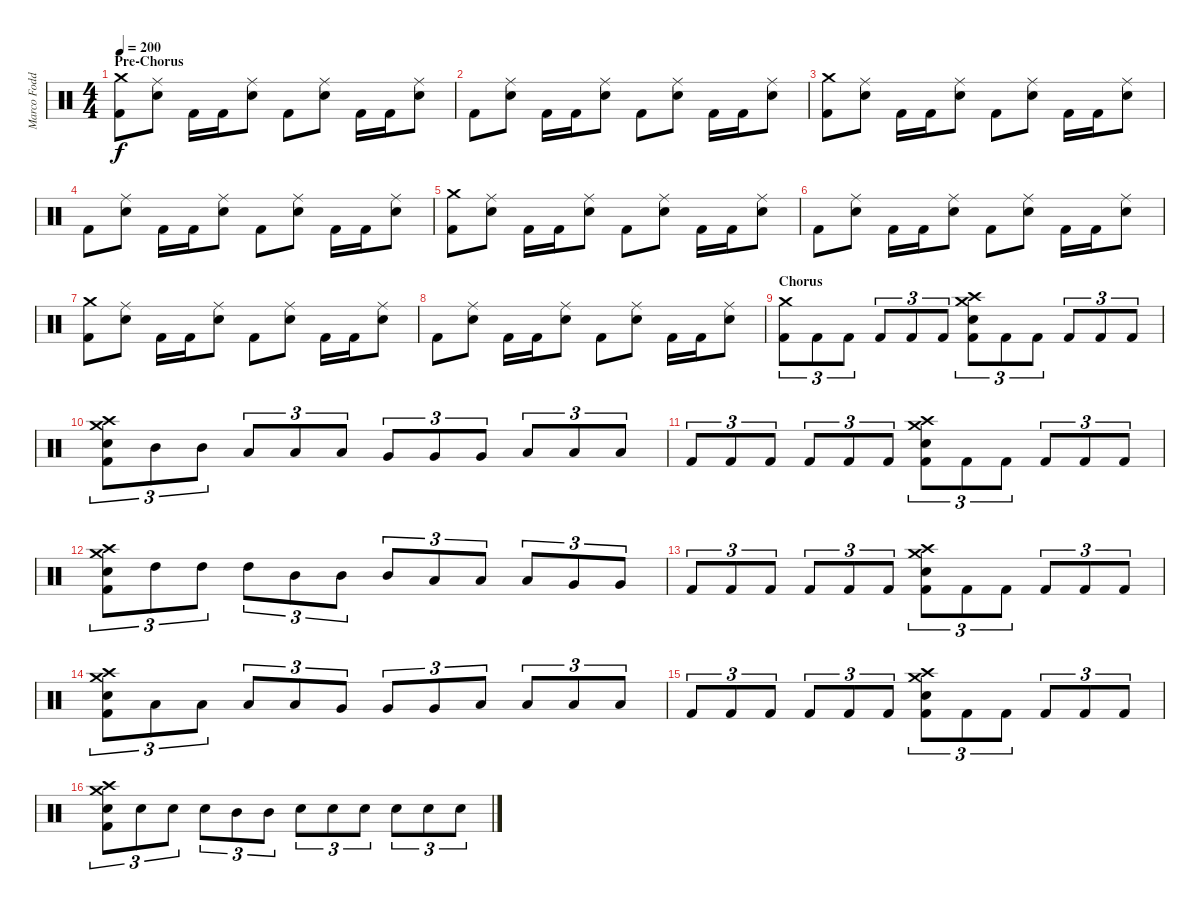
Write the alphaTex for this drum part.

\track ("Marco Foddis " "Marco Fodd") {instrument percussion}
\staff {score}
\articulation defaults
\ts (4 4)
\section ("" "Pre-Chorus")
\tempo 200
\clef neutral
\ks c
("Crash medium (hit)" "Kick (hit) 2").8{dy f} ("Ride (middle)" "Electric Snare (hit)").8 "Kick (hit) 2".16 "Kick (hit) 2".16 ("Ride (middle)" "Electric Snare (hit)").8 "Kick (hit) 2".8 ("Ride (middle)" "Electric Snare (hit)").8 "Kick (hit) 2".16 "Kick (hit) 2".16 ("Ride (middle)" "Electric Snare (hit)").8 |
"Kick (hit) 2".8 ("Ride (middle)" "Electric Snare (hit)").8 "Kick (hit) 2".16 "Kick (hit) 2".16 ("Ride (middle)" "Electric Snare (hit)").8 "Kick (hit) 2".8 ("Ride (middle)" "Electric Snare (hit)").8 "Kick (hit) 2".16 "Kick (hit) 2".16 ("Ride (middle)" "Electric Snare (hit)").8 |
("Crash medium (hit)" "Kick (hit) 2").8 ("Ride (middle)" "Electric Snare (hit)").8 "Kick (hit) 2".16 "Kick (hit) 2".16 ("Ride (middle)" "Electric Snare (hit)").8 "Kick (hit) 2".8 ("Ride (middle)" "Electric Snare (hit)").8 "Kick (hit) 2".16 "Kick (hit) 2".16 ("Ride (middle)" "Electric Snare (hit)").8 |
"Kick (hit) 2".8 ("Ride (middle)" "Electric Snare (hit)").8 "Kick (hit) 2".16 "Kick (hit) 2".16 ("Ride (middle)" "Electric Snare (hit)").8 "Kick (hit) 2".8 ("Ride (middle)" "Electric Snare (hit)").8 "Kick (hit) 2".16 "Kick (hit) 2".16 ("Ride (middle)" "Electric Snare (hit)").8 |
("Crash medium (hit)" "Kick (hit) 2").8 ("Ride (middle)" "Electric Snare (hit)").8 "Kick (hit) 2".16 "Kick (hit) 2".16 ("Ride (middle)" "Electric Snare (hit)").8 "Kick (hit) 2".8 ("Ride (middle)" "Electric Snare (hit)").8 "Kick (hit) 2".16 "Kick (hit) 2".16 ("Ride (middle)" "Electric Snare (hit)").8 |
"Kick (hit) 2".8 ("Ride (middle)" "Electric Snare (hit)").8 "Kick (hit) 2".16 "Kick (hit) 2".16 ("Ride (middle)" "Electric Snare (hit)").8 "Kick (hit) 2".8 ("Ride (middle)" "Electric Snare (hit)").8 "Kick (hit) 2".16 "Kick (hit) 2".16 ("Ride (middle)" "Electric Snare (hit)").8 |
("Crash medium (hit)" "Kick (hit) 2").8 ("Ride (middle)" "Electric Snare (hit)").8 "Kick (hit) 2".16 "Kick (hit) 2".16 ("Ride (middle)" "Electric Snare (hit)").8 "Kick (hit) 2".8 ("Ride (middle)" "Electric Snare (hit)").8 "Kick (hit) 2".16 "Kick (hit) 2".16 ("Ride (middle)" "Electric Snare (hit)").8 |
"Kick (hit) 2".8 ("Ride (middle)" "Electric Snare (hit)").8 "Kick (hit) 2".16 "Kick (hit) 2".16 ("Ride (middle)" "Electric Snare (hit)").8 "Kick (hit) 2".8 ("Ride (middle)" "Electric Snare (hit)").8 "Kick (hit) 2".16 "Kick (hit) 2".16 ("Ride (middle)" "Electric Snare (hit)").8 |
\section ("" "Chorus")
("Crash medium (hit)" "Kick (hit) 2").8{tu (3 2)} "Kick (hit) 2".8{tu (3 2)} "Kick (hit) 2".8{tu (3 2)} "Kick (hit) 2".8{tu (3 2)} "Kick (hit) 2".8{tu (3 2)} "Kick (hit) 2".8{tu (3 2)} ("Crash high (hit)" "Crash medium (hit)" "Electric Snare (hit)" "Kick (hit) 2").8{tu (3 2)} "Kick (hit) 2".8{tu (3 2)} "Kick (hit) 2".8{tu (3 2)} "Kick (hit) 2".8{tu (3 2)} "Kick (hit) 2".8{tu (3 2)} "Kick (hit) 2".8{tu (3 2)} |
("Crash high (hit)" "Crash medium (hit)" "Electric Snare (hit)" "Kick (hit) 2").8{tu (3 2)} "Mid Tom (hit)".8{tu (3 2)} "Mid Tom (hit)".8{tu (3 2)} "Low Tom (hit)".8{tu (3 2)} "Low Tom (hit)".8{tu (3 2)} "Low Tom (hit)".8{tu (3 2)} "Very Low Tom (hit)".8{tu (3 2)} "Very Low Tom (hit)".8{tu (3 2)} "Very Low Tom (hit)".8{tu (3 2)} "Low Floor Tom (hit)".8{tu (3 2)} "Low Floor Tom (hit)".8{tu (3 2)} "Low Floor Tom (hit)".8{tu (3 2)} |
"Kick (hit) 2".8{tu (3 2)} "Kick (hit) 2".8{tu (3 2)} "Kick (hit) 2".8{tu (3 2)} "Kick (hit) 2".8{tu (3 2)} "Kick (hit) 2".8{tu (3 2)} "Kick (hit) 2".8{tu (3 2)} ("Crash high (hit)" "Crash medium (hit)" "Electric Snare (hit)" "Kick (hit) 2").8{tu (3 2)} "Kick (hit) 2".8{tu (3 2)} "Kick (hit) 2".8{tu (3 2)} "Kick (hit) 2".8{tu (3 2)} "Kick (hit) 2".8{tu (3 2)} "Kick (hit) 2".8{tu (3 2)} |
("Crash high (hit)" "Crash medium (hit)" "Electric Snare (hit)" "Kick (hit) 2").8{tu (3 2)} "High Tom (hit)".8{tu (3 2)} "High Tom (hit)".8{tu (3 2)} "High Tom (hit)".8{tu (3 2)} "Mid Tom (hit)".8{tu (3 2)} "Mid Tom (hit)".8{tu (3 2)} "Mid Tom (hit)".8{tu (3 2)} "Low Tom (hit)".8{tu (3 2)} "Low Tom (hit)".8{tu (3 2)} "Low Tom (hit)".8{tu (3 2)} "Very Low Tom (hit)".8{tu (3 2)} "Very Low Tom (hit)".8{tu (3 2)} |
"Kick (hit) 2".8{tu (3 2)} "Kick (hit) 2".8{tu (3 2)} "Kick (hit) 2".8{tu (3 2)} "Kick (hit) 2".8{tu (3 2)} "Kick (hit) 2".8{tu (3 2)} "Kick (hit) 2".8{tu (3 2)} ("Crash high (hit)" "Crash medium (hit)" "Electric Snare (hit)" "Kick (hit) 2").8{tu (3 2)} "Kick (hit) 2".8{tu (3 2)} "Kick (hit) 2".8{tu (3 2)} "Kick (hit) 2".8{tu (3 2)} "Kick (hit) 2".8{tu (3 2)} "Kick (hit) 2".8{tu (3 2)} |
("Crash high (hit)" "Crash medium (hit)" "Electric Snare (hit)" "Kick (hit) 2").8{tu (3 2)} "Low Tom (hit)".8{tu (3 2)} "Low Tom (hit)".8{tu (3 2)} "Low Tom (hit)".8{tu (3 2)} "Low Tom (hit)".8{tu (3 2)} "Very Low Tom (hit)".8{tu (3 2)} "Very Low Tom (hit)".8{tu (3 2)} "Very Low Tom (hit)".8{tu (3 2)} "Low Floor Tom (hit)".8{tu (3 2)} "Low Floor Tom (hit)".8{tu (3 2)} "Low Floor Tom (hit)".8{tu (3 2)} "Low Floor Tom (hit)".8{tu (3 2)} |
"Kick (hit) 2".8{tu (3 2)} "Kick (hit) 2".8{tu (3 2)} "Kick (hit) 2".8{tu (3 2)} "Kick (hit) 2".8{tu (3 2)} "Kick (hit) 2".8{tu (3 2)} "Kick (hit) 2".8{tu (3 2)} ("Crash high (hit)" "Crash medium (hit)" "Electric Snare (hit)" "Kick (hit) 2").8{tu (3 2)} "Kick (hit) 2".8{tu (3 2)} "Kick (hit) 2".8{tu (3 2)} "Kick (hit) 2".8{tu (3 2)} "Kick (hit) 2".8{tu (3 2)} "Kick (hit) 2".8{tu (3 2)} |
("Crash high (hit)" "Crash medium (hit)" "Electric Snare (hit)" "Kick (hit) 2").8{tu (3 2)} "Electric Snare (hit)".8{tu (3 2)} "Electric Snare (hit)".8{tu (3 2)} "Electric Snare (hit)".8{tu (3 2)} "Mid Tom (hit)".8{tu (3 2)} "Mid Tom (hit)".8{tu (3 2)} "Electric Snare (hit)".8{tu (3 2)} "Electric Snare (hit)".8{tu (3 2)} "Electric Snare (hit)".8{tu (3 2)} "Electric Snare (hit)".8{tu (3 2)} "Electric Snare (hit)".8{tu (3 2)} "Electric Snare (hit)".8{tu (3 2)}
